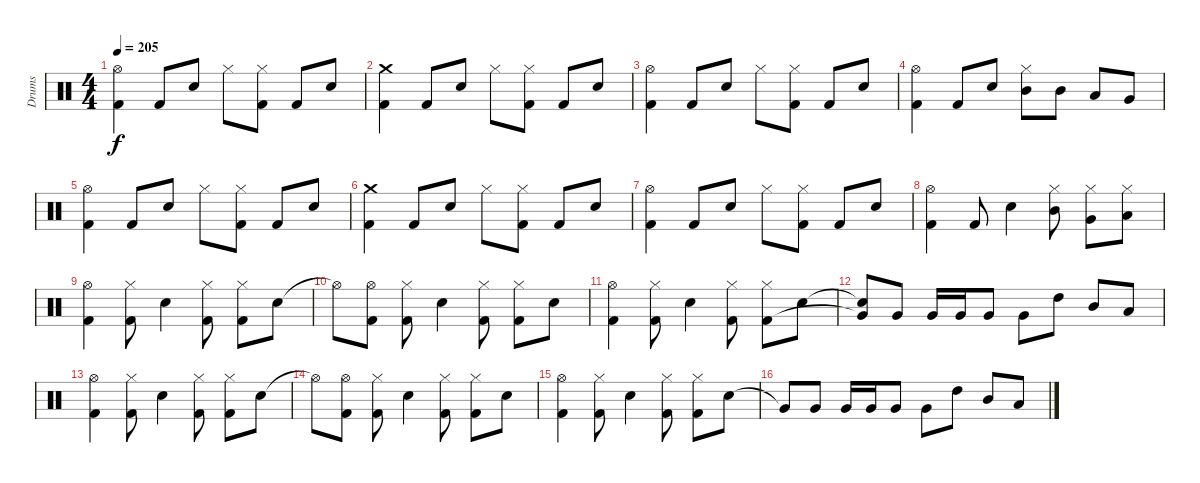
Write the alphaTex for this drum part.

\track ("Drums" "Drums") {instrument percussion}
\staff {score}
\articulation defaults
\ts (4 4)
\tempo 205
\clef neutral
\ks c
("Hi-Hat (open)" "Kick (hit) 2").4{dy f} "Kick (hit) 2".8 "Electric Snare (hit)".8 "Hi-Hat (closed)".8 ("Hi-Hat (closed)" "Kick (hit) 2").8 "Kick (hit) 2".8 "Electric Snare (hit)".8 |
("Crash medium (hit)" "Kick (hit) 2").4 "Kick (hit) 2".8 "Electric Snare (hit)".8 "Hi-Hat (closed)".8 ("Hi-Hat (closed)" "Kick (hit) 2").8 "Kick (hit) 2".8 "Electric Snare (hit)".8 |
("Hi-Hat (open)" "Kick (hit) 2").4 "Kick (hit) 2".8 "Electric Snare (hit)".8 "Hi-Hat (closed)".8 ("Hi-Hat (closed)" "Kick (hit) 2").8 "Kick (hit) 2".8 "Electric Snare (hit)".8 |
("Hi-Hat (open)" "Kick (hit) 2").4 "Kick (hit) 2".8 "Electric Snare (hit)".8 ("Hi-Hat (closed)" "Mid Tom (hit)").8 "Mid Tom (hit)".8 "Low Tom (hit)".8 "Very Low Tom (hit)".8 |
("Hi-Hat (open)" "Kick (hit) 2").4 "Kick (hit) 2".8 "Electric Snare (hit)".8 "Hi-Hat (closed)".8 ("Hi-Hat (closed)" "Kick (hit) 2").8 "Kick (hit) 2".8 "Electric Snare (hit)".8 |
("Crash medium (hit)" "Kick (hit) 2").4 "Kick (hit) 2".8 "Electric Snare (hit)".8 "Hi-Hat (closed)".8 ("Hi-Hat (closed)" "Kick (hit) 2").8 "Kick (hit) 2".8 "Electric Snare (hit)".8 |
("Hi-Hat (open)" "Kick (hit) 2").4 "Kick (hit) 2".8 "Electric Snare (hit)".8 "Hi-Hat (closed)".8 ("Hi-Hat (closed)" "Kick (hit) 2").8 "Kick (hit) 2".8 "Electric Snare (hit)".8 |
("Hi-Hat (open)" "Kick (hit) 2").4 "Kick (hit) 2".8 "Electric Snare (hit)".4 ("Hi-Hat (closed)" "Mid Tom (hit)").8 ("Hi-Hat (closed)" "Very Low Tom (hit)").8 ("Hi-Hat (closed)" "Low Tom (hit)").8 |
("Hi-Hat (open)" "Kick (hit) 2").4 ("Hi-Hat (closed)" "Kick (hit) 2").8 "Electric Snare (hit)".4 ("Hi-Hat (closed)" "Kick (hit) 2").8 ("Hi-Hat (closed)" "Kick (hit) 2").8 "Electric Snare (hit)".8 |
"Hi-Hat (open)"{t}.8 ("Hi-Hat (open)" "Kick (hit) 2").8 ("Hi-Hat (closed)" "Kick (hit) 2").8 "Electric Snare (hit)".4 ("Hi-Hat (closed)" "Kick (hit) 2").8 ("Hi-Hat (closed)" "Kick (hit) 2").8 "Electric Snare (hit)".8 |
("Hi-Hat (open)" "Kick (hit) 2").4 ("Hi-Hat (closed)" "Kick (hit) 2").8 "Electric Snare (hit)".4 ("Hi-Hat (closed)" "Kick (hit) 2").8 ("Hi-Hat (closed)" "Kick (hit) 2").8 "Electric Snare (hit)".8 |
("Snare (hit)"{t} "Very Low Tom (hit)"{t}).8 "Very Low Tom (hit)".8 "Very Low Tom (hit)".16 "Very Low Tom (hit)".16 "Very Low Tom (hit)".8 "Very Low Tom (hit)".8 "High Tom (hit)".8 "Mid Tom (hit)".8 "Low Tom (hit)".8 |
("Hi-Hat (open)" "Kick (hit) 2").4 ("Hi-Hat (closed)" "Kick (hit) 2").8 "Electric Snare (hit)".4 ("Hi-Hat (closed)" "Kick (hit) 2").8 ("Hi-Hat (closed)" "Kick (hit) 2").8 "Electric Snare (hit)".8 |
"Hi-Hat (open)"{t}.8 ("Hi-Hat (open)" "Kick (hit) 2").8 ("Hi-Hat (closed)" "Kick (hit) 2").8 "Electric Snare (hit)".4 ("Hi-Hat (closed)" "Kick (hit) 2").8 ("Hi-Hat (closed)" "Kick (hit) 2").8 "Electric Snare (hit)".8 |
("Hi-Hat (open)" "Kick (hit) 2").4 ("Hi-Hat (closed)" "Kick (hit) 2").8 "Electric Snare (hit)".4 ("Hi-Hat (closed)" "Kick (hit) 2").8 ("Hi-Hat (closed)" "Kick (hit) 2").8 "Electric Snare (hit)".8 |
"Very Low Tom (hit)"{t}.8 "Very Low Tom (hit)".8 "Very Low Tom (hit)".16 "Very Low Tom (hit)".16 "Very Low Tom (hit)".8 "Very Low Tom (hit)".8 "High Tom (hit)".8 "Mid Tom (hit)".8 "Low Tom (hit)".8
